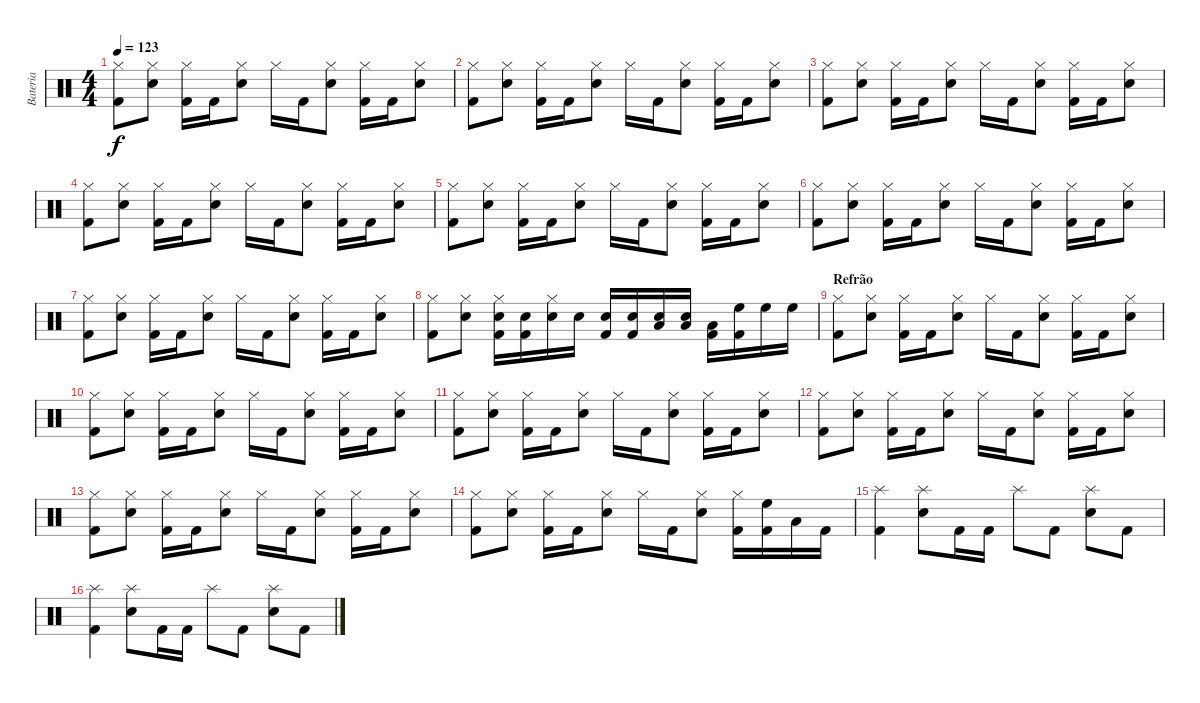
\track ("Bateria" "Bateria") {instrument percussion}
\staff {score}
\articulation defaults
\ts (4 4)
\tempo 123
\clef neutral
\ks c
("Hi-Hat (closed)" "Kick (hit) 2").8{dy f} ("Hi-Hat (closed)" "Snare (hit) 2").8 ("Hi-Hat (closed)" "Kick (hit) 2").16 "Kick (hit) 2".16 ("Hi-Hat (closed)" "Snare (hit) 2").8 "Hi-Hat (closed)".16 "Kick (hit) 2".16 ("Hi-Hat (closed)" "Snare (hit) 2").8 ("Hi-Hat (closed)" "Kick (hit) 2").16 "Kick (hit) 2".16 ("Hi-Hat (closed)" "Snare (hit) 2").8 |
("Hi-Hat (closed)" "Kick (hit) 2").8 ("Hi-Hat (closed)" "Snare (hit) 2").8 ("Hi-Hat (closed)" "Kick (hit) 2").16 "Kick (hit) 2".16 ("Hi-Hat (closed)" "Snare (hit) 2").8 "Hi-Hat (closed)".16 "Kick (hit) 2".16 ("Hi-Hat (closed)" "Snare (hit) 2").8 ("Hi-Hat (closed)" "Kick (hit) 2").16 "Kick (hit) 2".16 ("Hi-Hat (closed)" "Snare (hit) 2").8 |
("Hi-Hat (closed)" "Kick (hit) 2").8 ("Hi-Hat (closed)" "Snare (hit) 2").8 ("Hi-Hat (closed)" "Kick (hit) 2").16 "Kick (hit) 2".16 ("Hi-Hat (closed)" "Snare (hit) 2").8 "Hi-Hat (closed)".16 "Kick (hit) 2".16 ("Hi-Hat (closed)" "Snare (hit) 2").8 ("Hi-Hat (closed)" "Kick (hit) 2").16 "Kick (hit) 2".16 ("Hi-Hat (closed)" "Snare (hit) 2").8 |
("Hi-Hat (closed)" "Kick (hit) 2").8 ("Hi-Hat (closed)" "Snare (hit) 2").8 ("Hi-Hat (closed)" "Kick (hit) 2").16 "Kick (hit) 2".16 ("Hi-Hat (closed)" "Snare (hit) 2").8 "Hi-Hat (closed)".16 "Kick (hit) 2".16 ("Hi-Hat (closed)" "Snare (hit) 2").8 ("Hi-Hat (closed)" "Kick (hit) 2").16 "Kick (hit) 2".16 ("Hi-Hat (closed)" "Snare (hit) 2").8 |
("Hi-Hat (closed)" "Kick (hit) 2").8 ("Hi-Hat (closed)" "Snare (hit) 2").8 ("Hi-Hat (closed)" "Kick (hit) 2").16 "Kick (hit) 2".16 ("Hi-Hat (closed)" "Snare (hit) 2").8 "Hi-Hat (closed)".16 "Kick (hit) 2".16 ("Hi-Hat (closed)" "Snare (hit) 2").8 ("Hi-Hat (closed)" "Kick (hit) 2").16 "Kick (hit) 2".16 ("Hi-Hat (closed)" "Snare (hit) 2").8 |
("Hi-Hat (closed)" "Kick (hit) 2").8 ("Hi-Hat (closed)" "Snare (hit) 2").8 ("Hi-Hat (closed)" "Kick (hit) 2").16 "Kick (hit) 2".16 ("Hi-Hat (closed)" "Snare (hit) 2").8 "Hi-Hat (closed)".16 "Kick (hit) 2".16 ("Hi-Hat (closed)" "Snare (hit) 2").8 ("Hi-Hat (closed)" "Kick (hit) 2").16 "Kick (hit) 2".16 ("Hi-Hat (closed)" "Snare (hit) 2").8 |
("Hi-Hat (closed)" "Kick (hit) 2").8 ("Hi-Hat (closed)" "Snare (hit) 2").8 ("Hi-Hat (closed)" "Kick (hit) 2").16 "Kick (hit) 2".16 ("Hi-Hat (closed)" "Snare (hit) 2").8 "Hi-Hat (closed)".16 "Kick (hit) 2".16 ("Hi-Hat (closed)" "Snare (hit) 2").8 ("Hi-Hat (closed)" "Kick (hit) 2").16 "Kick (hit) 2".16 ("Hi-Hat (closed)" "Snare (hit) 2").8 |
("Hi-Hat (closed)" "Kick (hit) 2").8 ("Hi-Hat (closed)" "Snare (hit) 2").8 ("Hi-Hat (closed)" "Snare (hit) 2" "Kick (hit) 2").16 ("Snare (hit) 2" "Kick (hit) 2").16 ("Hi-Hat (closed)" "Snare (hit) 2").16 "Snare (hit) 2".16 ("Snare (hit) 2" "Kick (hit) 2").16 ("Snare (hit) 2" "Kick (hit) 2").16 ("Low Tom (hit)" "Snare (hit) 2").16 ("Low Tom (hit)" "Snare (hit) 2").16 ("Low Tom (hit)" "Kick (hit) 2").16 ("High Floor Tom (hit)" "Kick (hit) 2").16 "High Floor Tom (hit)".16 "High Floor Tom (hit)".16 |
\section ("" "Refrão")
("Hi-Hat (closed)" "Kick (hit) 2").8 ("Hi-Hat (closed)" "Snare (hit) 2").8 ("Hi-Hat (closed)" "Kick (hit) 2").16 "Kick (hit) 2".16 ("Hi-Hat (closed)" "Snare (hit) 2").8 "Hi-Hat (closed)".16 "Kick (hit) 2".16 ("Hi-Hat (closed)" "Snare (hit) 2").8 ("Hi-Hat (closed)" "Kick (hit) 2").16 "Kick (hit) 2".16 ("Hi-Hat (closed)" "Snare (hit) 2").8 |
("Hi-Hat (closed)" "Kick (hit) 2").8 ("Hi-Hat (closed)" "Snare (hit) 2").8 ("Hi-Hat (closed)" "Kick (hit) 2").16 "Kick (hit) 2".16 ("Hi-Hat (closed)" "Snare (hit) 2").8 "Hi-Hat (closed)".16 "Kick (hit) 2".16 ("Hi-Hat (closed)" "Snare (hit) 2").8 ("Hi-Hat (closed)" "Kick (hit) 2").16 "Kick (hit) 2".16 ("Hi-Hat (closed)" "Snare (hit) 2").8 |
("Hi-Hat (closed)" "Kick (hit) 2").8 ("Hi-Hat (closed)" "Snare (hit) 2").8 ("Hi-Hat (closed)" "Kick (hit) 2").16 "Kick (hit) 2".16 ("Hi-Hat (closed)" "Snare (hit) 2").8 "Hi-Hat (closed)".16 "Kick (hit) 2".16 ("Hi-Hat (closed)" "Snare (hit) 2").8 ("Hi-Hat (closed)" "Kick (hit) 2").16 "Kick (hit) 2".16 ("Hi-Hat (closed)" "Snare (hit) 2").8 |
("Hi-Hat (closed)" "Kick (hit) 2").8 ("Hi-Hat (closed)" "Snare (hit) 2").8 ("Hi-Hat (closed)" "Kick (hit) 2").16 "Kick (hit) 2".16 ("Hi-Hat (closed)" "Snare (hit) 2").8 "Hi-Hat (closed)".16 "Kick (hit) 2".16 ("Hi-Hat (closed)" "Snare (hit) 2").8 ("Hi-Hat (closed)" "Kick (hit) 2").16 "Kick (hit) 2".16 ("Hi-Hat (closed)" "Snare (hit) 2").8 |
("Hi-Hat (closed)" "Kick (hit) 2").8 ("Hi-Hat (closed)" "Snare (hit) 2").8 ("Hi-Hat (closed)" "Kick (hit) 2").16 "Kick (hit) 2".16 ("Hi-Hat (closed)" "Snare (hit) 2").8 "Hi-Hat (closed)".16 "Kick (hit) 2".16 ("Hi-Hat (closed)" "Snare (hit) 2").8 ("Hi-Hat (closed)" "Kick (hit) 2").16 "Kick (hit) 2".16 ("Hi-Hat (closed)" "Snare (hit) 2").8 |
("Hi-Hat (closed)" "Kick (hit) 2").8 ("Hi-Hat (closed)" "Snare (hit) 2").8 ("Hi-Hat (closed)" "Kick (hit) 2").16 "Kick (hit) 2".16 ("Hi-Hat (closed)" "Snare (hit) 2").8 "Hi-Hat (closed)".16 "Kick (hit) 2".16 ("Hi-Hat (closed)" "Snare (hit) 2").8 ("Hi-Hat (closed)" "Kick (hit) 2").16 ("High Floor Tom (hit)" "Kick (hit) 2").16 "Low Tom (hit)".16 "Kick (hit) 2".16 |
("Splash (hit)" "Kick (hit) 2").4 ("Splash (hit)" "Snare (hit) 2").8 "Kick (hit) 2".16 "Kick (hit) 2".16 "Splash (hit)".8 "Kick (hit) 2".8 ("Splash (hit)" "Snare (hit) 2").8 "Kick (hit) 2".8 |
("Splash (hit)" "Kick (hit) 2").4 ("Splash (hit)" "Snare (hit) 2").8 "Kick (hit) 2".16 "Kick (hit) 2".16 "Splash (hit)".8 "Kick (hit) 2".8 ("Splash (hit)" "Snare (hit) 2").8 "Kick (hit) 2".8
